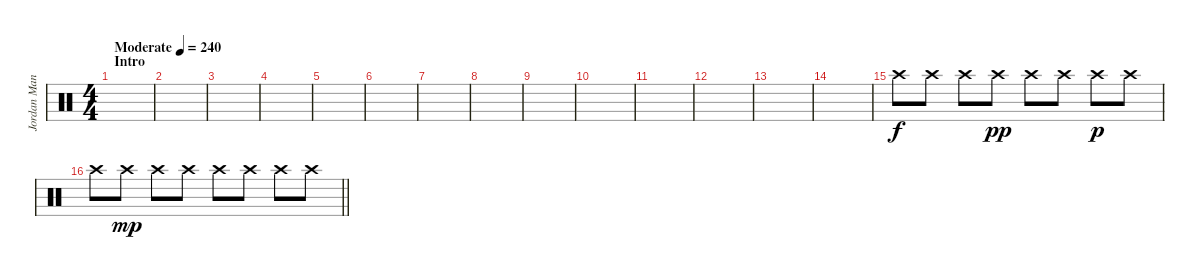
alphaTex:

\track ("Jordan Mancino" "Jordan Man") {instrument percussion}
\staff {score}
\articulation defaults
\ts (4 4)
\section ("" "Intro")
\tempo (240 "Moderate")
\clef neutral
\ks c
|
|
|
|
|
|
|
|
|
|
|
|
|
|
"Crash high (hit)".8 "Crash high (hit)".8 "Crash high (hit)".8 "Crash high (hit)".8{dy pp} "Crash high (hit)".8 "Crash high (hit)".8 "Crash high (hit)".8{dy p} "Crash high (hit)".8 |
\barLineRight lightlight "Crash high (hit)".8 "Crash high (hit)".8{dy mp} "Crash high (hit)".8 "Crash high (hit)".8 "Crash high (hit)".8 "Crash high (hit)".8 "Crash high (hit)".8 "Crash high (hit)".8
